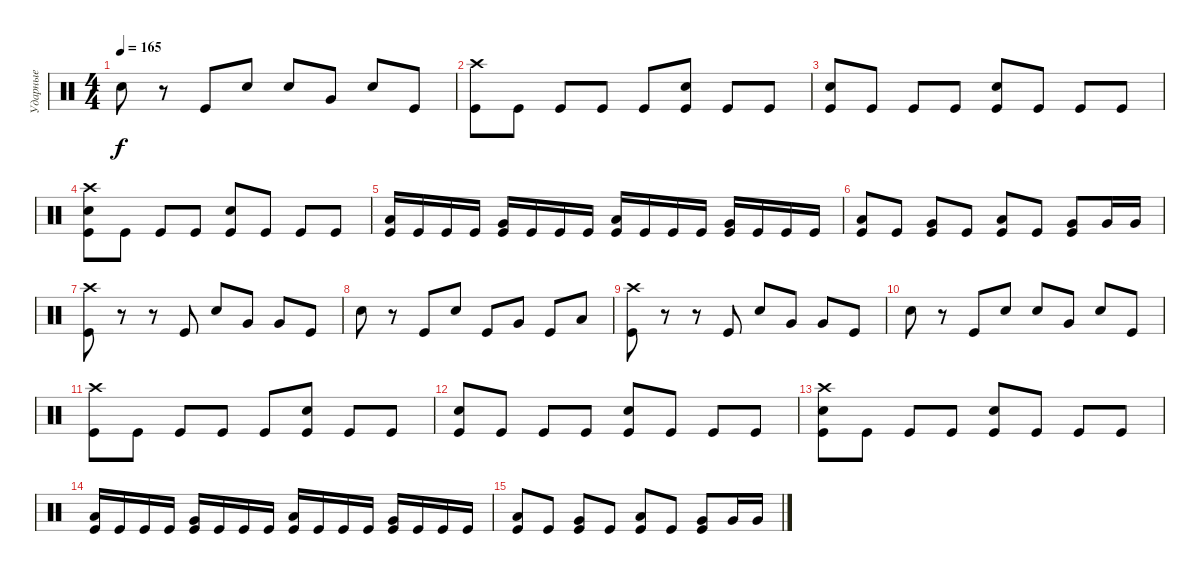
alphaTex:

\track ("Ударные" "Ударные") {instrument percussion}
\staff {score}
\articulation defaults
\ts (4 4)
\tempo 165
\clef neutral
\ks c "Electric Snare (hit)".8{dy f}
r.8 "Kick (hit)".8 "Electric Snare (hit)".8 "Electric Snare (hit)".8 "Very Low Tom (hit)".8 "Electric Snare (hit)".8 "Kick (hit)".8 |
("Crash high (hit)" "Kick (hit)").8 "Kick (hit)".8 "Kick (hit)".8 "Kick (hit)".8 "Kick (hit)".8 ("Electric Snare (hit)" "Kick (hit)").8 "Kick (hit)".8 "Kick (hit)".8 |
("Electric Snare (hit)" "Kick (hit)").8 "Kick (hit)".8 "Kick (hit)".8 "Kick (hit)".8 ("Electric Snare (hit)" "Kick (hit)").8 "Kick (hit)".8 "Kick (hit)".8 "Kick (hit)".8 |
("Crash high (hit)" "Electric Snare (hit)" "Kick (hit)").8 "Kick (hit)".8 "Kick (hit)".8 "Kick (hit)".8 ("Electric Snare (hit)" "Kick (hit)").8 "Kick (hit)".8 "Kick (hit)".8 "Kick (hit)".8 |
("Low Tom (hit)" "Kick (hit)").16 "Kick (hit)".16 "Kick (hit)".16 "Kick (hit)".16 ("Very Low Tom (hit)" "Kick (hit)").16 "Kick (hit)".16 "Kick (hit)".16 "Kick (hit)".16 ("Low Tom (hit)" "Kick (hit)").16 "Kick (hit)".16 "Kick (hit)".16 "Kick (hit)".16 ("Very Low Tom (hit)" "Kick (hit)").16 "Kick (hit)".16 "Kick (hit)".16 "Kick (hit)".16 |
("Low Tom (hit)" "Kick (hit)").8 "Kick (hit)".8 ("Very Low Tom (hit)" "Kick (hit)").8 "Kick (hit)".8 ("Low Tom (hit)" "Kick (hit)").8 "Kick (hit)".8 ("Very Low Tom (hit)" "Kick (hit)").8 "Very Low Tom (hit)".16 "Very Low Tom (hit)".16 |
("Crash high (hit)" "Kick (hit)").8 r.8 r.8 "Kick (hit)".8 "Electric Snare (hit)".8 "Very Low Tom (hit)".8 "Very Low Tom (hit)".8 "Kick (hit)".8 |
"Electric Snare (hit)".8 r.8 "Kick (hit)".8 "Electric Snare (hit)".8 "Kick (hit)".8 "Very Low Tom (hit)".8 "Kick (hit)".8 "Low Tom (hit)".8 |
("Crash high (hit)" "Kick (hit)").8 r.8 r.8 "Kick (hit)".8 "Electric Snare (hit)".8 "Very Low Tom (hit)".8 "Very Low Tom (hit)".8 "Kick (hit)".8 |
"Electric Snare (hit)".8 r.8 "Kick (hit)".8 "Electric Snare (hit)".8 "Electric Snare (hit)".8 "Very Low Tom (hit)".8 "Electric Snare (hit)".8 "Kick (hit)".8 |
("Crash high (hit)" "Kick (hit)").8 "Kick (hit)".8 "Kick (hit)".8 "Kick (hit)".8 "Kick (hit)".8 ("Electric Snare (hit)" "Kick (hit)").8 "Kick (hit)".8 "Kick (hit)".8 |
("Electric Snare (hit)" "Kick (hit)").8 "Kick (hit)".8 "Kick (hit)".8 "Kick (hit)".8 ("Electric Snare (hit)" "Kick (hit)").8 "Kick (hit)".8 "Kick (hit)".8 "Kick (hit)".8 |
("Crash high (hit)" "Electric Snare (hit)" "Kick (hit)").8 "Kick (hit)".8 "Kick (hit)".8 "Kick (hit)".8 ("Electric Snare (hit)" "Kick (hit)").8 "Kick (hit)".8 "Kick (hit)".8 "Kick (hit)".8 |
("Low Tom (hit)" "Kick (hit)").16 "Kick (hit)".16 "Kick (hit)".16 "Kick (hit)".16 ("Very Low Tom (hit)" "Kick (hit)").16 "Kick (hit)".16 "Kick (hit)".16 "Kick (hit)".16 ("Low Tom (hit)" "Kick (hit)").16 "Kick (hit)".16 "Kick (hit)".16 "Kick (hit)".16 ("Very Low Tom (hit)" "Kick (hit)").16 "Kick (hit)".16 "Kick (hit)".16 "Kick (hit)".16 |
("Low Tom (hit)" "Kick (hit)").8 "Kick (hit)".8 ("Very Low Tom (hit)" "Kick (hit)").8 "Kick (hit)".8 ("Low Tom (hit)" "Kick (hit)").8 "Kick (hit)".8 ("Very Low Tom (hit)" "Kick (hit)").8 "Very Low Tom (hit)".16 "Very Low Tom (hit)".16
